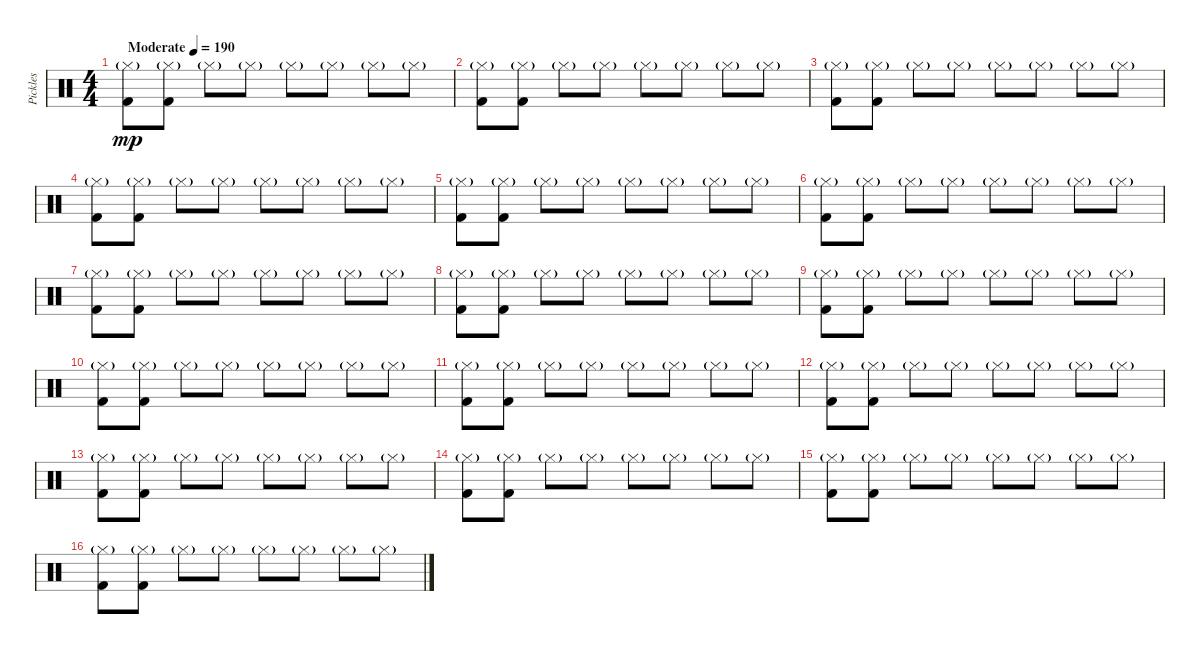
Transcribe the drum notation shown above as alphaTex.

\track ("Pickles" "Pickles") {instrument percussion}
\staff {score}
\articulation defaults
\ts (4 4)
\tempo (190 "Moderate")
\clef neutral
\ks c
("Hi-Hat (closed)"{g} "Kick (hit) 2").8{dy mp} ("Hi-Hat (closed)"{g} "Kick (hit) 2").8 "Hi-Hat (closed)"{g}.8 "Hi-Hat (closed)"{g}.8 "Hi-Hat (closed)"{g}.8 "Hi-Hat (closed)"{g}.8 "Hi-Hat (closed)"{g}.8 "Hi-Hat (closed)"{g}.8 |
("Hi-Hat (closed)"{g} "Kick (hit) 2").8 ("Hi-Hat (closed)"{g} "Kick (hit) 2").8 "Hi-Hat (closed)"{g}.8 "Hi-Hat (closed)"{g}.8 "Hi-Hat (closed)"{g}.8 "Hi-Hat (closed)"{g}.8 "Hi-Hat (closed)"{g}.8 "Hi-Hat (closed)"{g}.8 |
("Hi-Hat (closed)"{g} "Kick (hit) 2").8 ("Hi-Hat (closed)"{g} "Kick (hit) 2").8 "Hi-Hat (closed)"{g}.8 "Hi-Hat (closed)"{g}.8 "Hi-Hat (closed)"{g}.8 "Hi-Hat (closed)"{g}.8 "Hi-Hat (closed)"{g}.8 "Hi-Hat (closed)"{g}.8 |
("Hi-Hat (closed)"{g} "Kick (hit) 2").8 ("Hi-Hat (closed)"{g} "Kick (hit) 2").8 "Hi-Hat (closed)"{g}.8 "Hi-Hat (closed)"{g}.8 "Hi-Hat (closed)"{g}.8 "Hi-Hat (closed)"{g}.8 "Hi-Hat (closed)"{g}.8 "Hi-Hat (closed)"{g}.8 |
("Hi-Hat (closed)"{g} "Kick (hit) 2").8 ("Hi-Hat (closed)"{g} "Kick (hit) 2").8 "Hi-Hat (closed)"{g}.8 "Hi-Hat (closed)"{g}.8 "Hi-Hat (closed)"{g}.8 "Hi-Hat (closed)"{g}.8 "Hi-Hat (closed)"{g}.8 "Hi-Hat (closed)"{g}.8 |
("Hi-Hat (closed)"{g} "Kick (hit) 2").8 ("Hi-Hat (closed)"{g} "Kick (hit) 2").8 "Hi-Hat (closed)"{g}.8 "Hi-Hat (closed)"{g}.8 "Hi-Hat (closed)"{g}.8 "Hi-Hat (closed)"{g}.8 "Hi-Hat (closed)"{g}.8 "Hi-Hat (closed)"{g}.8 |
("Hi-Hat (closed)"{g} "Kick (hit) 2").8 ("Hi-Hat (closed)"{g} "Kick (hit) 2").8 "Hi-Hat (closed)"{g}.8 "Hi-Hat (closed)"{g}.8 "Hi-Hat (closed)"{g}.8 "Hi-Hat (closed)"{g}.8 "Hi-Hat (closed)"{g}.8 "Hi-Hat (closed)"{g}.8 |
("Hi-Hat (closed)"{g} "Kick (hit) 2").8 ("Hi-Hat (closed)"{g} "Kick (hit) 2").8 "Hi-Hat (closed)"{g}.8 "Hi-Hat (closed)"{g}.8 "Hi-Hat (closed)"{g}.8 "Hi-Hat (closed)"{g}.8 "Hi-Hat (closed)"{g}.8 "Hi-Hat (closed)"{g}.8 |
("Hi-Hat (closed)"{g} "Kick (hit) 2").8 ("Hi-Hat (closed)"{g} "Kick (hit) 2").8 "Hi-Hat (closed)"{g}.8 "Hi-Hat (closed)"{g}.8 "Hi-Hat (closed)"{g}.8 "Hi-Hat (closed)"{g}.8 "Hi-Hat (closed)"{g}.8 "Hi-Hat (closed)"{g}.8 |
("Hi-Hat (closed)"{g} "Kick (hit) 2").8 ("Hi-Hat (closed)"{g} "Kick (hit) 2").8 "Hi-Hat (closed)"{g}.8 "Hi-Hat (closed)"{g}.8 "Hi-Hat (closed)"{g}.8 "Hi-Hat (closed)"{g}.8 "Hi-Hat (closed)"{g}.8 "Hi-Hat (closed)"{g}.8 |
("Hi-Hat (closed)"{g} "Kick (hit) 2").8 ("Hi-Hat (closed)"{g} "Kick (hit) 2").8 "Hi-Hat (closed)"{g}.8 "Hi-Hat (closed)"{g}.8 "Hi-Hat (closed)"{g}.8 "Hi-Hat (closed)"{g}.8 "Hi-Hat (closed)"{g}.8 "Hi-Hat (closed)"{g}.8 |
("Hi-Hat (closed)"{g} "Kick (hit) 2").8 ("Hi-Hat (closed)"{g} "Kick (hit) 2").8 "Hi-Hat (closed)"{g}.8 "Hi-Hat (closed)"{g}.8 "Hi-Hat (closed)"{g}.8 "Hi-Hat (closed)"{g}.8 "Hi-Hat (closed)"{g}.8 "Hi-Hat (closed)"{g}.8 |
("Hi-Hat (closed)"{g} "Kick (hit) 2").8 ("Hi-Hat (closed)"{g} "Kick (hit) 2").8 "Hi-Hat (closed)"{g}.8 "Hi-Hat (closed)"{g}.8 "Hi-Hat (closed)"{g}.8 "Hi-Hat (closed)"{g}.8 "Hi-Hat (closed)"{g}.8 "Hi-Hat (closed)"{g}.8 |
("Hi-Hat (closed)"{g} "Kick (hit) 2").8 ("Hi-Hat (closed)"{g} "Kick (hit) 2").8 "Hi-Hat (closed)"{g}.8 "Hi-Hat (closed)"{g}.8 "Hi-Hat (closed)"{g}.8 "Hi-Hat (closed)"{g}.8 "Hi-Hat (closed)"{g}.8 "Hi-Hat (closed)"{g}.8 |
("Hi-Hat (closed)"{g} "Kick (hit) 2").8 ("Hi-Hat (closed)"{g} "Kick (hit) 2").8 "Hi-Hat (closed)"{g}.8 "Hi-Hat (closed)"{g}.8 "Hi-Hat (closed)"{g}.8 "Hi-Hat (closed)"{g}.8 "Hi-Hat (closed)"{g}.8 "Hi-Hat (closed)"{g}.8 |
("Hi-Hat (closed)"{g} "Kick (hit) 2").8 ("Hi-Hat (closed)"{g} "Kick (hit) 2").8 "Hi-Hat (closed)"{g}.8 "Hi-Hat (closed)"{g}.8 "Hi-Hat (closed)"{g}.8 "Hi-Hat (closed)"{g}.8 "Hi-Hat (closed)"{g}.8 "Hi-Hat (closed)"{g}.8
